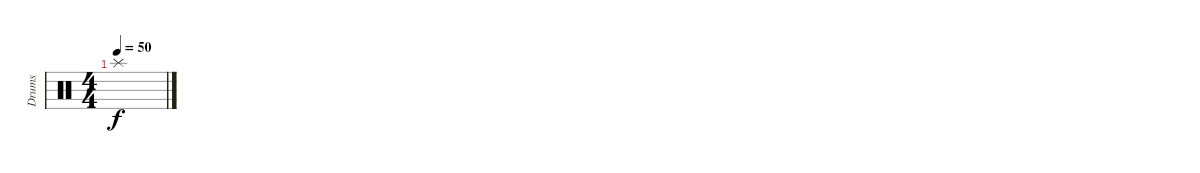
\track ("Drums" "Drums") {instrument percussion}
\staff {score}
\articulation defaults
\ts (4 4)
\tempo 50
\clef neutral
\ks c "Splash (hit)".1{dy f}
